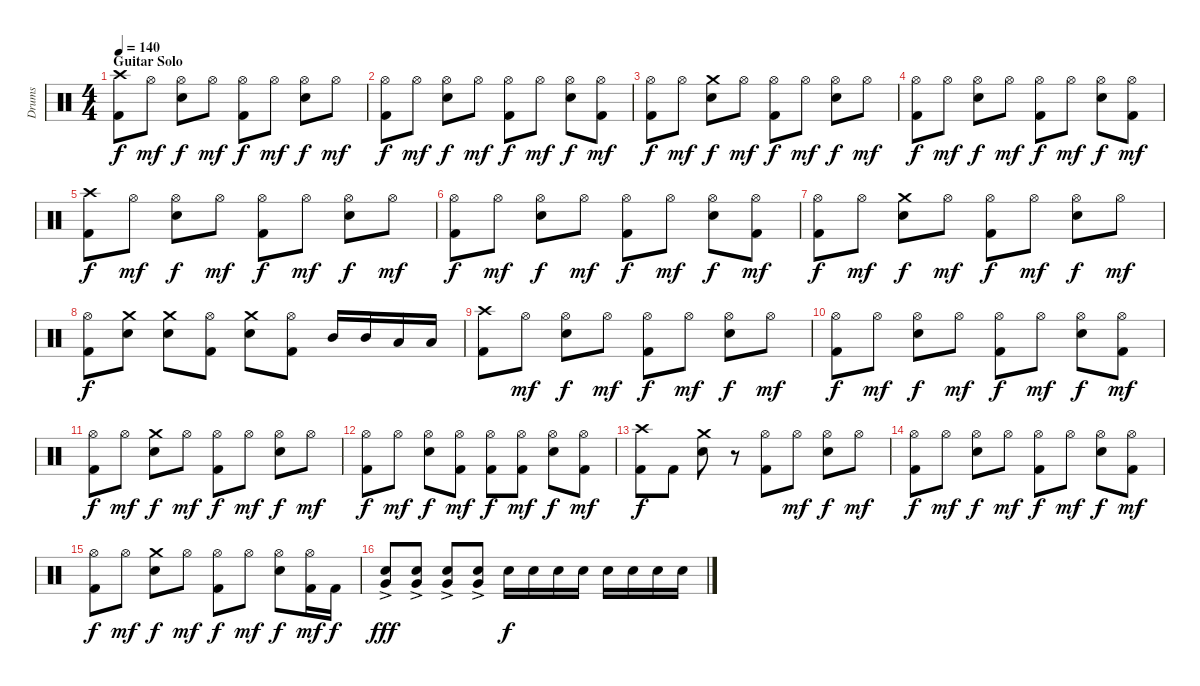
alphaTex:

\track ("Drums" "Drums") {instrument percussion}
\staff {score}
\articulation defaults
\ts (4 4)
\section ("" "Guitar Solo")
\tempo 140
\clef neutral
\ks c
("Crash high (hit)" "Kick (hit) 2").8{dy f} "Hi-Hat (open)".8{dy mf} ("Hi-Hat (open)" "Electric Snare (hit)").8{dy f} "Hi-Hat (open)".8{dy mf} ("Hi-Hat (open)" "Kick (hit) 2").8{dy f} "Hi-Hat (open)".8{dy mf} ("Hi-Hat (open)" "Electric Snare (hit)").8{dy f} "Hi-Hat (open)".8{dy mf} |
("Hi-Hat (open)" "Kick (hit) 2").8{dy f} "Hi-Hat (open)".8{dy mf} ("Hi-Hat (open)" "Electric Snare (hit)").8{dy f} "Hi-Hat (open)".8{dy mf} ("Hi-Hat (open)" "Kick (hit) 2").8{dy f} "Hi-Hat (open)".8{dy mf} ("Hi-Hat (open)" "Electric Snare (hit)").8{dy f} ("Hi-Hat (open)" "Kick (hit) 2").8{dy mf} |
("Hi-Hat (open)" "Kick (hit) 2").8{dy f} "Hi-Hat (open)".8{dy mf} ("Crash medium (hit)" "Electric Snare (hit)").8{dy f} "Hi-Hat (open)".8{dy mf} ("Hi-Hat (open)" "Kick (hit) 2").8{dy f} "Hi-Hat (open)".8{dy mf} ("Hi-Hat (open)" "Electric Snare (hit)").8{dy f} "Hi-Hat (open)".8{dy mf} |
("Hi-Hat (open)" "Kick (hit) 2").8{dy f} "Hi-Hat (open)".8{dy mf} ("Hi-Hat (open)" "Electric Snare (hit)").8{dy f} "Hi-Hat (open)".8{dy mf} ("Hi-Hat (open)" "Kick (hit) 2").8{dy f} "Hi-Hat (open)".8{dy mf} ("Hi-Hat (open)" "Electric Snare (hit)").8{dy f} ("Hi-Hat (open)" "Kick (hit) 2").8{dy mf} |
("Crash high (hit)" "Kick (hit) 2").8{dy f} "Hi-Hat (open)".8{dy mf} ("Hi-Hat (open)" "Electric Snare (hit)").8{dy f} "Hi-Hat (open)".8{dy mf} ("Hi-Hat (open)" "Kick (hit) 2").8{dy f} "Hi-Hat (open)".8{dy mf} ("Hi-Hat (open)" "Electric Snare (hit)").8{dy f} "Hi-Hat (open)".8{dy mf} |
("Hi-Hat (open)" "Kick (hit) 2").8{dy f} "Hi-Hat (open)".8{dy mf} ("Hi-Hat (open)" "Electric Snare (hit)").8{dy f} "Hi-Hat (open)".8{dy mf} ("Hi-Hat (open)" "Kick (hit) 2").8{dy f} "Hi-Hat (open)".8{dy mf} ("Hi-Hat (open)" "Electric Snare (hit)").8{dy f} ("Hi-Hat (open)" "Kick (hit) 2").8{dy mf} |
("Hi-Hat (open)" "Kick (hit) 2").8{dy f} "Hi-Hat (open)".8{dy mf} ("Crash medium (hit)" "Electric Snare (hit)").8{dy f} "Hi-Hat (open)".8{dy mf} ("Hi-Hat (open)" "Kick (hit) 2").8{dy f} "Hi-Hat (open)".8{dy mf} ("Hi-Hat (open)" "Electric Snare (hit)").8{dy f} "Hi-Hat (open)".8{dy mf} |
("Hi-Hat (open)" "Kick (hit) 2").8{dy f} ("Crash medium (hit)" "Electric Snare (hit)").8 ("Crash medium (hit)" "Electric Snare (hit)").8 ("Hi-Hat (open)" "Kick (hit) 2").8 ("Crash medium (hit)" "Electric Snare (hit)").8 ("Hi-Hat (open)" "Kick (hit) 2").8 "Mid Tom (hit)".16 "Mid Tom (hit)".16 "Low Tom (hit)".16 "Low Tom (hit)".16 |
("Crash high (hit)" "Kick (hit) 2").8 "Hi-Hat (open)".8{dy mf} ("Hi-Hat (open)" "Electric Snare (hit)").8{dy f} "Hi-Hat (open)".8{dy mf} ("Hi-Hat (open)" "Kick (hit) 2").8{dy f} "Hi-Hat (open)".8{dy mf} ("Hi-Hat (open)" "Electric Snare (hit)").8{dy f} "Hi-Hat (open)".8{dy mf} |
("Hi-Hat (open)" "Kick (hit) 2").8{dy f} "Hi-Hat (open)".8{dy mf} ("Hi-Hat (open)" "Electric Snare (hit)").8{dy f} "Hi-Hat (open)".8{dy mf} ("Hi-Hat (open)" "Kick (hit) 2").8{dy f} "Hi-Hat (open)".8{dy mf} ("Hi-Hat (open)" "Electric Snare (hit)").8{dy f} ("Hi-Hat (open)" "Kick (hit) 2").8{dy mf} |
("Hi-Hat (open)" "Kick (hit) 2").8{dy f} "Hi-Hat (open)".8{dy mf} ("Crash medium (hit)" "Electric Snare (hit)").8{dy f} "Hi-Hat (open)".8{dy mf} ("Hi-Hat (open)" "Kick (hit) 2").8{dy f} "Hi-Hat (open)".8{dy mf} ("Hi-Hat (open)" "Electric Snare (hit)").8{dy f} "Hi-Hat (open)".8{dy mf} |
("Hi-Hat (open)" "Kick (hit) 2").8{dy f} "Hi-Hat (open)".8{dy mf} ("Hi-Hat (open)" "Electric Snare (hit)").8{dy f} ("Hi-Hat (open)" "Kick (hit) 2").8{dy mf} ("Hi-Hat (open)" "Kick (hit) 2").8{dy f} ("Hi-Hat (open)" "Kick (hit) 2").8{dy mf} ("Hi-Hat (open)" "Electric Snare (hit)").8{dy f} ("Hi-Hat (open)" "Kick (hit) 2").8{dy mf} |
("Crash high (hit)" "Kick (hit) 2").8{dy f} "Kick (hit) 2".8 ("Crash medium (hit)" "Electric Snare (hit)").8 r.8 ("Hi-Hat (open)" "Kick (hit) 2").8 "Hi-Hat (open)".8{dy mf} ("Hi-Hat (open)" "Electric Snare (hit)").8{dy f} "Hi-Hat (open)".8{dy mf} |
("Hi-Hat (open)" "Kick (hit) 2").8{dy f} "Hi-Hat (open)".8{dy mf} ("Hi-Hat (open)" "Electric Snare (hit)").8{dy f} "Hi-Hat (open)".8{dy mf} ("Hi-Hat (open)" "Kick (hit) 2").8{dy f} "Hi-Hat (open)".8{dy mf} ("Hi-Hat (open)" "Electric Snare (hit)").8{dy f} ("Hi-Hat (open)" "Kick (hit) 2").8{dy mf} |
("Hi-Hat (open)" "Kick (hit) 2").8{dy f} "Hi-Hat (open)".8{dy mf} ("Crash medium (hit)" "Electric Snare (hit)").8{dy f} "Hi-Hat (open)".8{dy mf} ("Hi-Hat (open)" "Kick (hit) 2").8{dy f} "Hi-Hat (open)".8{dy mf} ("Hi-Hat (open)" "Electric Snare (hit)").8{dy f} ("Hi-Hat (open)" "Kick (hit) 2").16{dy mf} "Kick (hit) 2".16{dy f} |
("Very Low Tom (hit)"{ac} "Electric Snare (hit)").8{dy fff} ("Very Low Tom (hit)"{ac} "Electric Snare (hit)").8 ("Very Low Tom (hit)"{ac} "Electric Snare (hit)").8 ("Very Low Tom (hit)"{ac} "Electric Snare (hit)").8 "Electric Snare (hit)".16{dy f} "Electric Snare (hit)".16 "Electric Snare (hit)".16 "Electric Snare (hit)".16 "Electric Snare (hit)".16 "Electric Snare (hit)".16 "Electric Snare (hit)".16 "Electric Snare (hit)".16
